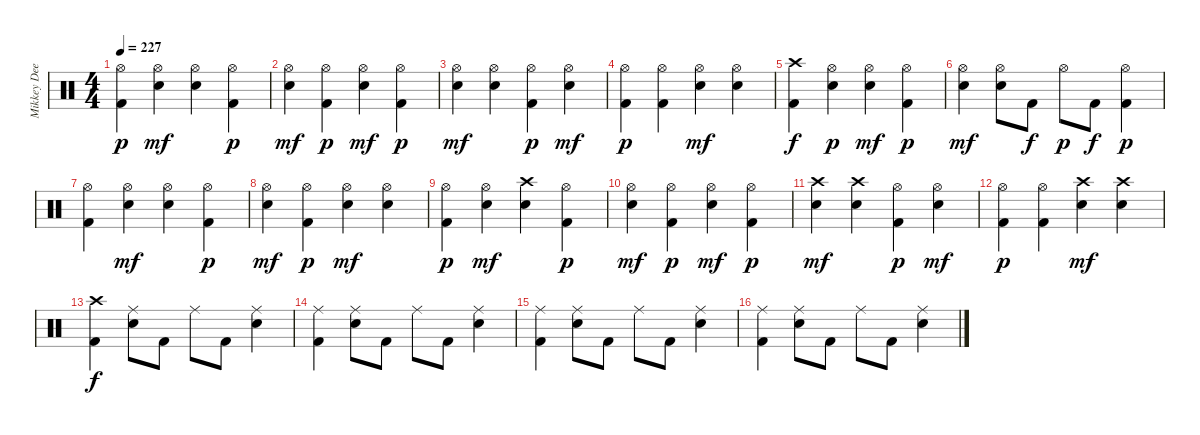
\track ("Mikkey Dee" "Mikkey Dee") {instrument percussion}
\staff {score}
\articulation defaults
\ts (4 4)
\tempo 227
\clef neutral
\ks c
("Hi-Hat (open)" "Kick (hit) 2").4{dy p} ("Electric Snare (hit)" "Hi-Hat (open)").4{dy mf} ("Hi-Hat (open)" "Electric Snare (hit)").4 ("Hi-Hat (open)" "Kick (hit) 2").4{dy p} |
("Hi-Hat (open)" "Electric Snare (hit)").4{dy mf} ("Hi-Hat (open)" "Kick (hit) 2").4{dy p} ("Hi-Hat (open)" "Electric Snare (hit)").4{dy mf} ("Hi-Hat (open)" "Kick (hit) 2").4{dy p} |
("Hi-Hat (open)" "Electric Snare (hit)").4{dy mf} ("Electric Snare (hit)" "Hi-Hat (open)").4 ("Hi-Hat (open)" "Kick (hit) 2").4{dy p} ("Electric Snare (hit)" "Hi-Hat (open)").4{dy mf} |
("Kick (hit) 2" "Hi-Hat (open)").4{dy p} ("Kick (hit) 2" "Hi-Hat (open)").4 ("Hi-Hat (open)" "Electric Snare (hit)").4{dy mf} ("Hi-Hat (open)" "Electric Snare (hit)").4 |
("Kick (hit) 2" "Crash high (hit)").4{dy f} ("Hi-Hat (open)" "Electric Snare (hit)").4{dy p} ("Electric Snare (hit)" "Hi-Hat (open)").4{dy mf} ("Hi-Hat (open)" "Kick (hit) 2").4{dy p} |
("Electric Snare (hit)" "Hi-Hat (open)").4{dy mf} ("Hi-Hat (open)" "Electric Snare (hit)").8 "Kick (hit) 2".8{dy f} "Hi-Hat (open)".8{dy p} "Kick (hit) 2".8{dy f} ("Kick (hit) 2" "Hi-Hat (open)").4{dy p} |
("Hi-Hat (open)" "Kick (hit) 2").4 ("Electric Snare (hit)" "Hi-Hat (open)").4{dy mf} ("Hi-Hat (open)" "Electric Snare (hit)").4 ("Hi-Hat (open)" "Kick (hit) 2").4{dy p} |
("Electric Snare (hit)" "Hi-Hat (open)").4{dy mf} ("Hi-Hat (open)" "Kick (hit) 2").4{dy p} ("Hi-Hat (open)" "Electric Snare (hit)").4{dy mf} ("Electric Snare (hit)" "Hi-Hat (open)").4 |
("Hi-Hat (open)" "Kick (hit) 2").4{dy p} ("Hi-Hat (open)" "Electric Snare (hit)").4{dy mf} ("Crash high (hit)" "Electric Snare (hit)").4 ("Hi-Hat (open)" "Kick (hit) 2").4{dy p} |
("Hi-Hat (open)" "Electric Snare (hit)").4{dy mf} ("Kick (hit) 2" "Hi-Hat (open)").4{dy p} ("Electric Snare (hit)" "Hi-Hat (open)").4{dy mf} ("Hi-Hat (open)" "Kick (hit) 2").4{dy p} |
("Electric Snare (hit)" "Crash high (hit)").4{dy mf} ("Electric Snare (hit)" "Crash high (hit)").4 ("Hi-Hat (open)" "Kick (hit) 2").4{dy p} ("Hi-Hat (open)" "Electric Snare (hit)").4{dy mf} |
("Hi-Hat (open)" "Kick (hit) 2").4{dy p} ("Hi-Hat (open)" "Kick (hit) 2").4 ("Electric Snare (hit)" "Crash high (hit)").4{dy mf} ("Crash high (hit)" "Electric Snare (hit)").4 |
("Kick (hit) 2" "Crash high (hit)").4{dy f} ("Electric Snare (hit)" "Ride (middle)").8 "Kick (hit) 2".8 "Ride (middle)".8 "Kick (hit) 2".8 ("Ride (middle)" "Electric Snare (hit)").4 |
("Kick (hit) 2" "Ride (middle)").4 ("Ride (middle)" "Electric Snare (hit)").8 "Kick (hit) 2".8 "Ride (middle)".8 "Kick (hit) 2".8 ("Ride (middle)" "Electric Snare (hit)").4 |
("Kick (hit) 2" "Ride (middle)").4 ("Ride (middle)" "Electric Snare (hit)").8 "Kick (hit) 2".8 "Ride (middle)".8 "Kick (hit) 2".8 ("Ride (middle)" "Electric Snare (hit)").4 |
("Kick (hit) 2" "Ride (middle)").4 ("Electric Snare (hit)" "Ride (middle)").8 "Kick (hit) 2".8 "Ride (middle)".8 "Kick (hit) 2".8 ("Electric Snare (hit)" "Ride (middle)").4
